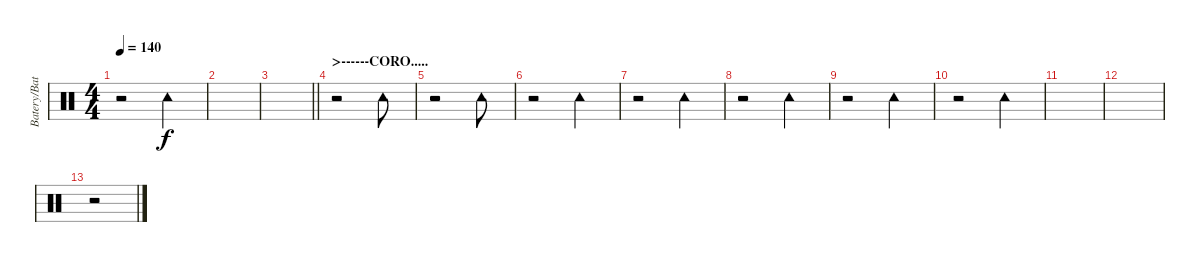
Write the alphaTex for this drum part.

\track ("Batery/Bateria" "Batery/Bat") {instrument percussion}
\staff {score}
\articulation defaults
\ts (4 4)
\tempo 140
\clef neutral
\ks c
r.2{dy f} "Tambourine (hit)".4 |
|
\barLineRight lightlight
|
\section ("" ">------CORO.....")
r.2 "Tambourine (hit)".8 |
r.2 "Tambourine (hit)".8 |
r.2 "Tambourine (hit)".4 |
r.2 "Tambourine (hit)".4 |
r.2 "Tambourine (hit)".4 |
r.2 "Tambourine (hit)".4 |
r.2 "Tambourine (hit)".4 |
|
|
r.2
